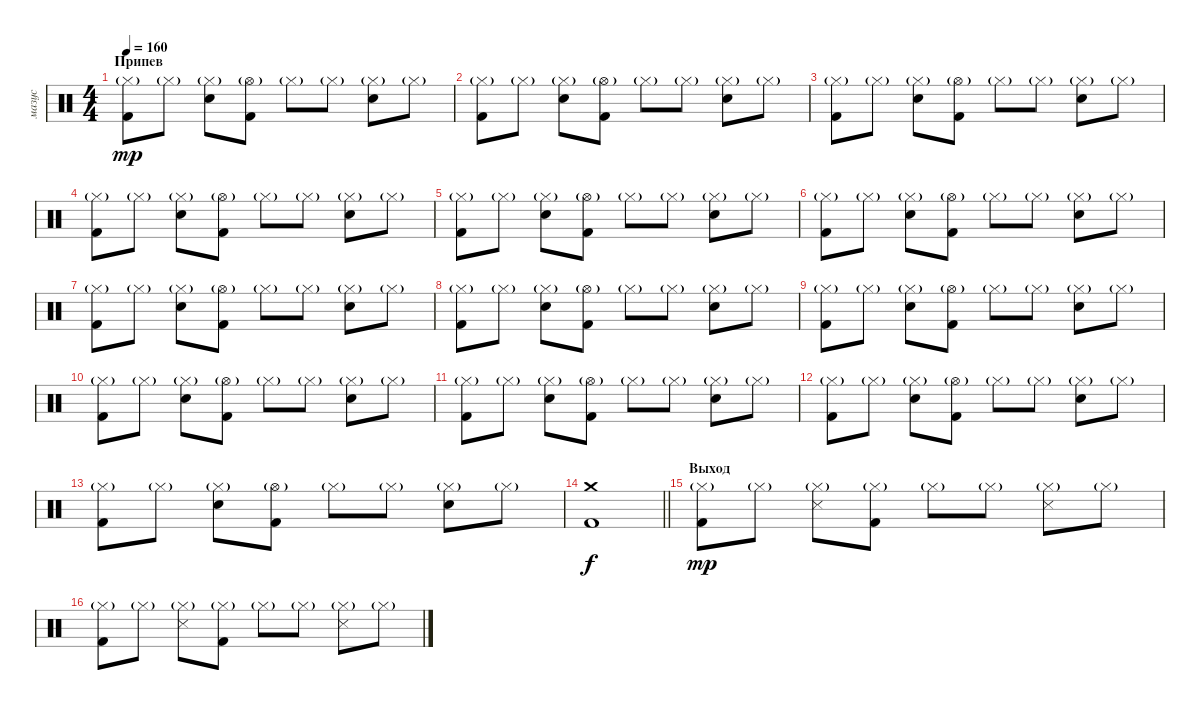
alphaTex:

\track ("мазус" "мазус") {instrument percussion}
\staff {score}
\articulation defaults
\ts (4 4)
\section ("" "Припев")
\tempo 160
\clef neutral
\ks c
("Kick (hit) 2" "Hi-Hat (closed)"{g}).8{dy mp} "Hi-Hat (closed)"{g}.8 ("Electric Snare (hit)" "Hi-Hat (closed)"{g}).8 ("Kick (hit) 2" "Hi-Hat (open)"{g}).8 "Hi-Hat (closed)"{g}.8 "Hi-Hat (closed)"{g}.8 ("Electric Snare (hit)" "Hi-Hat (closed)"{g}).8 "Hi-Hat (closed)"{g}.8 |
("Kick (hit) 2" "Hi-Hat (closed)"{g}).8 "Hi-Hat (closed)"{g}.8 ("Electric Snare (hit)" "Hi-Hat (closed)"{g}).8 ("Kick (hit) 2" "Hi-Hat (open)"{g}).8 "Hi-Hat (closed)"{g}.8 "Hi-Hat (closed)"{g}.8 ("Electric Snare (hit)" "Hi-Hat (closed)"{g}).8 "Hi-Hat (closed)"{g}.8 |
("Kick (hit) 2" "Hi-Hat (closed)"{g}).8 "Hi-Hat (closed)"{g}.8 ("Electric Snare (hit)" "Hi-Hat (closed)"{g}).8 ("Kick (hit) 2" "Hi-Hat (open)"{g}).8 "Hi-Hat (closed)"{g}.8 "Hi-Hat (closed)"{g}.8 ("Electric Snare (hit)" "Hi-Hat (closed)"{g}).8 "Hi-Hat (closed)"{g}.8 |
("Kick (hit) 2" "Hi-Hat (closed)"{g}).8 "Hi-Hat (closed)"{g}.8 ("Electric Snare (hit)" "Hi-Hat (closed)"{g}).8 ("Kick (hit) 2" "Hi-Hat (open)"{g}).8 "Hi-Hat (closed)"{g}.8 "Hi-Hat (closed)"{g}.8 ("Electric Snare (hit)" "Hi-Hat (closed)"{g}).8 "Hi-Hat (closed)"{g}.8 |
("Kick (hit) 2" "Hi-Hat (closed)"{g}).8 "Hi-Hat (closed)"{g}.8 ("Electric Snare (hit)" "Hi-Hat (closed)"{g}).8 ("Kick (hit) 2" "Hi-Hat (open)"{g}).8 "Hi-Hat (closed)"{g}.8 "Hi-Hat (closed)"{g}.8 ("Electric Snare (hit)" "Hi-Hat (closed)"{g}).8 "Hi-Hat (closed)"{g}.8 |
("Kick (hit) 2" "Hi-Hat (closed)"{g}).8 "Hi-Hat (closed)"{g}.8 ("Electric Snare (hit)" "Hi-Hat (closed)"{g}).8 ("Kick (hit) 2" "Hi-Hat (open)"{g}).8 "Hi-Hat (closed)"{g}.8 "Hi-Hat (closed)"{g}.8 ("Electric Snare (hit)" "Hi-Hat (closed)"{g}).8 "Hi-Hat (closed)"{g}.8 |
("Kick (hit) 2" "Hi-Hat (closed)"{g}).8 "Hi-Hat (closed)"{g}.8 ("Electric Snare (hit)" "Hi-Hat (closed)"{g}).8 ("Kick (hit) 2" "Hi-Hat (open)"{g}).8 "Hi-Hat (closed)"{g}.8 "Hi-Hat (closed)"{g}.8 ("Electric Snare (hit)" "Hi-Hat (closed)"{g}).8 "Hi-Hat (closed)"{g}.8 |
("Kick (hit) 2" "Hi-Hat (closed)"{g}).8 "Hi-Hat (closed)"{g}.8 ("Electric Snare (hit)" "Hi-Hat (closed)"{g}).8 ("Kick (hit) 2" "Hi-Hat (open)"{g}).8 "Hi-Hat (closed)"{g}.8 "Hi-Hat (closed)"{g}.8 ("Electric Snare (hit)" "Hi-Hat (closed)"{g}).8 "Hi-Hat (closed)"{g}.8 |
("Kick (hit) 2" "Hi-Hat (closed)"{g}).8 "Hi-Hat (closed)"{g}.8 ("Electric Snare (hit)" "Hi-Hat (closed)"{g}).8 ("Kick (hit) 2" "Hi-Hat (open)"{g}).8 "Hi-Hat (closed)"{g}.8 "Hi-Hat (closed)"{g}.8 ("Electric Snare (hit)" "Hi-Hat (closed)"{g}).8 "Hi-Hat (closed)"{g}.8 |
("Kick (hit) 2" "Hi-Hat (closed)"{g}).8 "Hi-Hat (closed)"{g}.8 ("Electric Snare (hit)" "Hi-Hat (closed)"{g}).8 ("Kick (hit) 2" "Hi-Hat (open)"{g}).8 "Hi-Hat (closed)"{g}.8 "Hi-Hat (closed)"{g}.8 ("Electric Snare (hit)" "Hi-Hat (closed)"{g}).8 "Hi-Hat (closed)"{g}.8 |
("Kick (hit) 2" "Hi-Hat (closed)"{g}).8 "Hi-Hat (closed)"{g}.8 ("Electric Snare (hit)" "Hi-Hat (closed)"{g}).8 ("Kick (hit) 2" "Hi-Hat (open)"{g}).8 "Hi-Hat (closed)"{g}.8 "Hi-Hat (closed)"{g}.8 ("Electric Snare (hit)" "Hi-Hat (closed)"{g}).8 "Hi-Hat (closed)"{g}.8 |
("Kick (hit) 2" "Hi-Hat (closed)"{g}).8 "Hi-Hat (closed)"{g}.8 ("Electric Snare (hit)" "Hi-Hat (closed)"{g}).8 ("Kick (hit) 2" "Hi-Hat (open)"{g}).8 "Hi-Hat (closed)"{g}.8 "Hi-Hat (closed)"{g}.8 ("Electric Snare (hit)" "Hi-Hat (closed)"{g}).8 "Hi-Hat (closed)"{g}.8 |
("Kick (hit) 2" "Hi-Hat (closed)"{g}).8 "Hi-Hat (closed)"{g}.8 ("Electric Snare (hit)" "Hi-Hat (closed)"{g}).8 ("Kick (hit) 2" "Hi-Hat (open)"{g}).8 "Hi-Hat (closed)"{g}.8 "Hi-Hat (closed)"{g}.8 ("Electric Snare (hit)" "Hi-Hat (closed)"{g}).8 "Hi-Hat (closed)"{g}.8 |
\barLineRight lightlight
("Kick (hit) 2" "Crash medium (hit)").1{dy f} |
\section ("" "Выход")
("Kick (hit) 2" "Hi-Hat (closed)"{g}).8{dy mp} "Hi-Hat (closed)"{g}.8 ("Snare (side stick) 3" "Hi-Hat (closed)"{g}).8 ("Kick (hit) 2" "Hi-Hat (closed)"{g}).8 "Hi-Hat (closed)"{g}.8 "Hi-Hat (closed)"{g}.8 ("Snare (side stick) 3" "Hi-Hat (closed)"{g}).8 "Hi-Hat (closed)"{g}.8 |
("Kick (hit) 2" "Hi-Hat (closed)"{g}).8 "Hi-Hat (closed)"{g}.8 ("Snare (side stick) 3" "Hi-Hat (closed)"{g}).8 ("Kick (hit) 2" "Hi-Hat (closed)"{g}).8 "Hi-Hat (closed)"{g}.8 "Hi-Hat (closed)"{g}.8 ("Snare (side stick) 3" "Hi-Hat (closed)"{g}).8 "Hi-Hat (closed)"{g}.8
